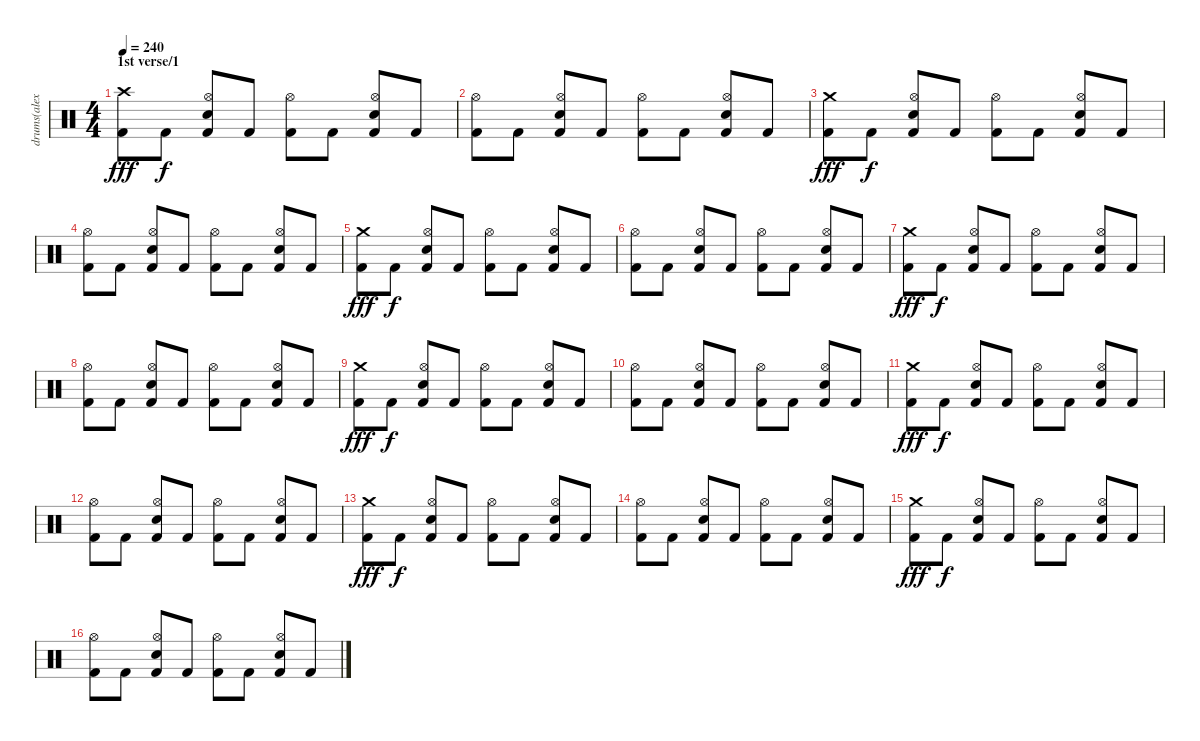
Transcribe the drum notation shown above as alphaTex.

\track ("drums(alex holzshwart)" "drums(alex") {instrument percussion}
\staff {score}
\articulation defaults
\ts (4 4)
\section ("" "1st verse/1")
\tempo 240
\clef neutral
\ks c
("Crash high (hit)" "Kick (hit) 2").8{dy fff} "Kick (hit) 2".8{dy f} ("Hi-Hat (open)" "Electric Snare (hit)" "Kick (hit) 2").8 "Kick (hit) 2".8 ("Hi-Hat (open)" "Kick (hit) 2").8 "Kick (hit) 2".8 ("Hi-Hat (open)" "Electric Snare (hit)" "Kick (hit) 2").8 "Kick (hit) 2".8 |
("Hi-Hat (open)" "Kick (hit) 2").8 "Kick (hit) 2".8 ("Hi-Hat (open)" "Electric Snare (hit)" "Kick (hit) 2").8 "Kick (hit) 2".8 ("Hi-Hat (open)" "Kick (hit) 2").8 "Kick (hit) 2".8 ("Hi-Hat (open)" "Electric Snare (hit)" "Kick (hit) 2").8 "Kick (hit) 2".8 |
("Crash medium (hit)" "Kick (hit) 2").8{dy fff} "Kick (hit) 2".8{dy f} ("Hi-Hat (open)" "Electric Snare (hit)" "Kick (hit) 2").8 "Kick (hit) 2".8 ("Hi-Hat (open)" "Kick (hit) 2").8 "Kick (hit) 2".8 ("Hi-Hat (open)" "Electric Snare (hit)" "Kick (hit) 2").8 "Kick (hit) 2".8 |
("Hi-Hat (open)" "Kick (hit) 2").8 "Kick (hit) 2".8 ("Hi-Hat (open)" "Electric Snare (hit)" "Kick (hit) 2").8 "Kick (hit) 2".8 ("Hi-Hat (open)" "Kick (hit) 2").8 "Kick (hit) 2".8 ("Hi-Hat (open)" "Electric Snare (hit)" "Kick (hit) 2").8 "Kick (hit) 2".8 |
("Crash medium (hit)" "Kick (hit) 2").8{dy fff} "Kick (hit) 2".8{dy f} ("Hi-Hat (open)" "Electric Snare (hit)" "Kick (hit) 2").8 "Kick (hit) 2".8 ("Hi-Hat (open)" "Kick (hit) 2").8 "Kick (hit) 2".8 ("Hi-Hat (open)" "Electric Snare (hit)" "Kick (hit) 2").8 "Kick (hit) 2".8 |
("Hi-Hat (open)" "Kick (hit) 2").8 "Kick (hit) 2".8 ("Hi-Hat (open)" "Electric Snare (hit)" "Kick (hit) 2").8 "Kick (hit) 2".8 ("Hi-Hat (open)" "Kick (hit) 2").8 "Kick (hit) 2".8 ("Hi-Hat (open)" "Electric Snare (hit)" "Kick (hit) 2").8 "Kick (hit) 2".8 |
("Crash medium (hit)" "Kick (hit) 2").8{dy fff} "Kick (hit) 2".8{dy f} ("Hi-Hat (open)" "Electric Snare (hit)" "Kick (hit) 2").8 "Kick (hit) 2".8 ("Hi-Hat (open)" "Kick (hit) 2").8 "Kick (hit) 2".8 ("Hi-Hat (open)" "Electric Snare (hit)" "Kick (hit) 2").8 "Kick (hit) 2".8 |
("Hi-Hat (open)" "Kick (hit) 2").8 "Kick (hit) 2".8 ("Hi-Hat (open)" "Electric Snare (hit)" "Kick (hit) 2").8 "Kick (hit) 2".8 ("Hi-Hat (open)" "Kick (hit) 2").8 "Kick (hit) 2".8 ("Hi-Hat (open)" "Electric Snare (hit)" "Kick (hit) 2").8 "Kick (hit) 2".8 |
("Crash medium (hit)" "Kick (hit) 2").8{dy fff} "Kick (hit) 2".8{dy f} ("Hi-Hat (open)" "Electric Snare (hit)" "Kick (hit) 2").8 "Kick (hit) 2".8 ("Hi-Hat (open)" "Kick (hit) 2").8 "Kick (hit) 2".8 ("Hi-Hat (open)" "Electric Snare (hit)" "Kick (hit) 2").8 "Kick (hit) 2".8 |
("Hi-Hat (open)" "Kick (hit) 2").8 "Kick (hit) 2".8 ("Hi-Hat (open)" "Electric Snare (hit)" "Kick (hit) 2").8 "Kick (hit) 2".8 ("Hi-Hat (open)" "Kick (hit) 2").8 "Kick (hit) 2".8 ("Hi-Hat (open)" "Electric Snare (hit)" "Kick (hit) 2").8 "Kick (hit) 2".8 |
("Crash medium (hit)" "Kick (hit) 2").8{dy fff} "Kick (hit) 2".8{dy f} ("Hi-Hat (open)" "Electric Snare (hit)" "Kick (hit) 2").8 "Kick (hit) 2".8 ("Hi-Hat (open)" "Kick (hit) 2").8 "Kick (hit) 2".8 ("Hi-Hat (open)" "Electric Snare (hit)" "Kick (hit) 2").8 "Kick (hit) 2".8 |
("Hi-Hat (open)" "Kick (hit) 2").8 "Kick (hit) 2".8 ("Hi-Hat (open)" "Electric Snare (hit)" "Kick (hit) 2").8 "Kick (hit) 2".8 ("Hi-Hat (open)" "Kick (hit) 2").8 "Kick (hit) 2".8 ("Hi-Hat (open)" "Electric Snare (hit)" "Kick (hit) 2").8 "Kick (hit) 2".8 |
("Crash medium (hit)" "Kick (hit) 2").8{dy fff} "Kick (hit) 2".8{dy f} ("Hi-Hat (open)" "Electric Snare (hit)" "Kick (hit) 2").8 "Kick (hit) 2".8 ("Hi-Hat (open)" "Kick (hit) 2").8 "Kick (hit) 2".8 ("Hi-Hat (open)" "Electric Snare (hit)" "Kick (hit) 2").8 "Kick (hit) 2".8 |
("Hi-Hat (open)" "Kick (hit) 2").8 "Kick (hit) 2".8 ("Hi-Hat (open)" "Electric Snare (hit)" "Kick (hit) 2").8 "Kick (hit) 2".8 ("Hi-Hat (open)" "Kick (hit) 2").8 "Kick (hit) 2".8 ("Hi-Hat (open)" "Electric Snare (hit)" "Kick (hit) 2").8 "Kick (hit) 2".8 |
("Crash medium (hit)" "Kick (hit) 2").8{dy fff} "Kick (hit) 2".8{dy f} ("Hi-Hat (open)" "Electric Snare (hit)" "Kick (hit) 2").8 "Kick (hit) 2".8 ("Hi-Hat (open)" "Kick (hit) 2").8 "Kick (hit) 2".8 ("Hi-Hat (open)" "Electric Snare (hit)" "Kick (hit) 2").8 "Kick (hit) 2".8 |
("Hi-Hat (open)" "Kick (hit) 2").8 "Kick (hit) 2".8 ("Hi-Hat (open)" "Electric Snare (hit)" "Kick (hit) 2").8 "Kick (hit) 2".8 ("Hi-Hat (open)" "Kick (hit) 2").8 "Kick (hit) 2".8 ("Hi-Hat (open)" "Electric Snare (hit)" "Kick (hit) 2").8 "Kick (hit) 2".8
